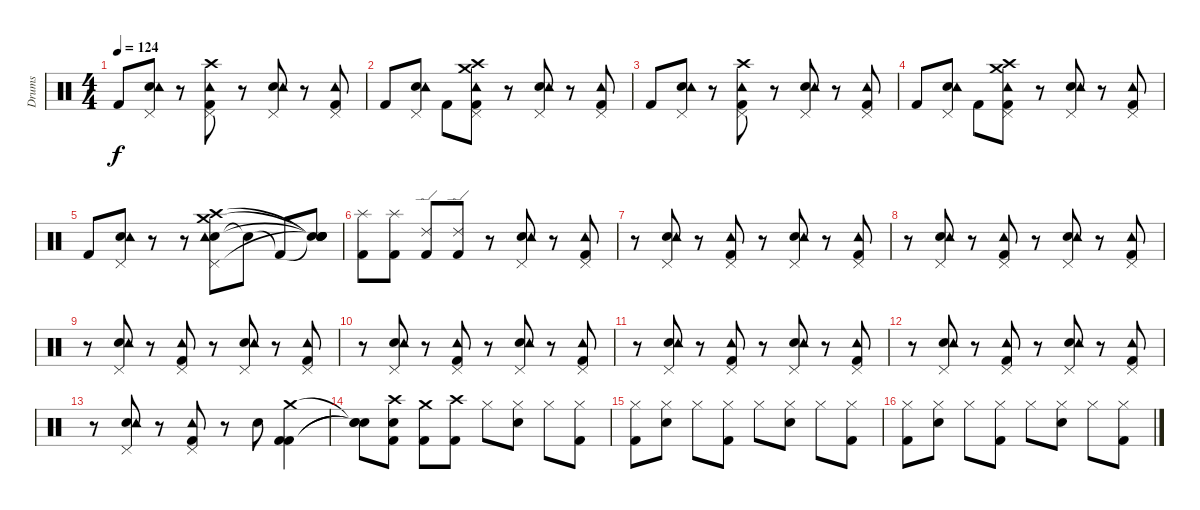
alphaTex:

\track ("Drums" "Drums") {instrument percussion}
\staff {score}
\articulation defaults
\ts (4 4)
\tempo 124
\clef neutral
\ks c "Kick (hit) 2".8{dy f}
("Snare (hit) 2" "Tambourine (hit)" "Pedal Hi-Hat (hit)").8 r.8 ("Kick (hit) 2" "Tambourine (hit)" "Pedal Hi-Hat (hit)" "Crash high (hit)").8 r.8 ("Snare (hit) 2" "Tambourine (hit)" "Pedal Hi-Hat (hit)").8 r.8 ("Kick (hit) 2" "Tambourine (hit)" "Pedal Hi-Hat (hit)").8 |
"Kick (hit) 2".8 ("Snare (hit) 2" "Tambourine (hit)" "Pedal Hi-Hat (hit)").8 "Kick (hit) 2".8 ("Kick (hit) 2" "Tambourine (hit)" "Pedal Hi-Hat (hit)" "Crash high (hit)" "Crash medium (hit)").8 r.8 ("Snare (hit) 2" "Tambourine (hit)" "Pedal Hi-Hat (hit)").8 r.8 ("Kick (hit) 2" "Tambourine (hit)" "Pedal Hi-Hat (hit)").8 |
"Kick (hit) 2".8 ("Snare (hit) 2" "Tambourine (hit)" "Pedal Hi-Hat (hit)").8 r.8 ("Kick (hit) 2" "Tambourine (hit)" "Pedal Hi-Hat (hit)" "Crash high (hit)").8 r.8 ("Snare (hit) 2" "Tambourine (hit)" "Pedal Hi-Hat (hit)").8 r.8 ("Kick (hit) 2" "Tambourine (hit)" "Pedal Hi-Hat (hit)").8 |
"Kick (hit) 2".8 ("Snare (hit) 2" "Tambourine (hit)" "Pedal Hi-Hat (hit)").8 "Kick (hit) 2".8 ("Kick (hit) 2" "Tambourine (hit)" "Pedal Hi-Hat (hit)" "Crash high (hit)" "Crash medium (hit)").8 r.8 ("Snare (hit) 2" "Tambourine (hit)" "Pedal Hi-Hat (hit)").8 r.8 ("Kick (hit) 2" "Tambourine (hit)" "Pedal Hi-Hat (hit)").8 |
"Kick (hit) 2".8 ("Snare (hit) 2" "Tambourine (hit)" "Pedal Hi-Hat (hit)").8 r.8 r.8 ("Snare (hit) 2" "Tambourine (hit)" "Pedal Hi-Hat (hit)" "Crash medium (hit)" "Crash high (hit)").8 "Snare (hit)"{t}.8 "Kick (hit) 2"{t}.8 ("Snare (hit)"{t} "Snare (hit)"{t} "Snare (hit)"{t} "Snare (hit)"{t} "Snare (hit)"{t}).8 |
("Splash (hit)" "Kick (hit) 2").8 ("Splash (hit)" "Kick (hit) 2").8 ("Ride (edge) 2" "Kick (hit) 2").8 ("Ride (edge) 2" "Kick (hit) 2").8 r.8 ("Snare (hit) 2" "Tambourine (hit)" "Pedal Hi-Hat (hit)").8 r.8 ("Kick (hit) 2" "Tambourine (hit)" "Pedal Hi-Hat (hit)").8 |
r.8 ("Snare (hit) 2" "Tambourine (hit)" "Pedal Hi-Hat (hit)").8 r.8 ("Kick (hit) 2" "Tambourine (hit)" "Pedal Hi-Hat (hit)").8 r.8 ("Snare (hit) 2" "Tambourine (hit)" "Pedal Hi-Hat (hit)").8 r.8 ("Kick (hit) 2" "Tambourine (hit)" "Pedal Hi-Hat (hit)").8 |
r.8 ("Snare (hit) 2" "Tambourine (hit)" "Pedal Hi-Hat (hit)").8 r.8 ("Kick (hit) 2" "Tambourine (hit)" "Pedal Hi-Hat (hit)").8 r.8 ("Snare (hit) 2" "Tambourine (hit)" "Pedal Hi-Hat (hit)").8 r.8 ("Kick (hit) 2" "Tambourine (hit)" "Pedal Hi-Hat (hit)").8 |
r.8 ("Snare (hit) 2" "Tambourine (hit)" "Pedal Hi-Hat (hit)").8 r.8 ("Kick (hit) 2" "Tambourine (hit)" "Pedal Hi-Hat (hit)").8 r.8 ("Snare (hit) 2" "Tambourine (hit)" "Pedal Hi-Hat (hit)").8 r.8 ("Kick (hit) 2" "Tambourine (hit)" "Pedal Hi-Hat (hit)").8 |
r.8 ("Snare (hit) 2" "Tambourine (hit)" "Pedal Hi-Hat (hit)").8 r.8 ("Kick (hit) 2" "Tambourine (hit)" "Pedal Hi-Hat (hit)").8 r.8 ("Snare (hit) 2" "Tambourine (hit)" "Pedal Hi-Hat (hit)").8 r.8 ("Kick (hit) 2" "Tambourine (hit)" "Pedal Hi-Hat (hit)").8 |
r.8 ("Snare (hit) 2" "Tambourine (hit)" "Pedal Hi-Hat (hit)").8 r.8 ("Kick (hit) 2" "Tambourine (hit)" "Pedal Hi-Hat (hit)").8 r.8 ("Snare (hit) 2" "Tambourine (hit)" "Pedal Hi-Hat (hit)").8 r.8 ("Kick (hit) 2" "Tambourine (hit)" "Pedal Hi-Hat (hit)").8 |
r.8 ("Snare (hit) 2" "Tambourine (hit)" "Pedal Hi-Hat (hit)").8 r.8 ("Kick (hit) 2" "Tambourine (hit)" "Pedal Hi-Hat (hit)").8 r.8 ("Snare (hit) 2" "Tambourine (hit)" "Pedal Hi-Hat (hit)").8 r.8 ("Kick (hit) 2" "Tambourine (hit)" "Pedal Hi-Hat (hit)").8 |
r.8 ("Snare (hit) 2" "Tambourine (hit)" "Pedal Hi-Hat (hit)").8 r.8 ("Kick (hit) 2" "Tambourine (hit)" "Pedal Hi-Hat (hit)").8 r.8 "Snare (hit) 2".8 ("Kick (hit) 2" "Crash medium (hit)" "Kick (hit) 2").4 |
("Snare (hit)"{t} "Snare (hit)"{t} "Snare (hit)"{t}).8 ("Kick (hit) 2" "Crash high (hit)" "Snare (hit) 2").8 ("Kick (hit) 2" "Crash medium (hit)").8 ("Kick (hit) 2" "Crash high (hit)").8 "Hi-Hat (closed)".8 ("Snare (hit) 2" "Hi-Hat (closed)").8 "Hi-Hat (closed)".8 ("Kick (hit) 2" "Hi-Hat (closed)").8 |
("Kick (hit) 2" "Hi-Hat (closed)").8 ("Snare (hit) 2" "Hi-Hat (closed)").8 "Hi-Hat (closed)".8 ("Kick (hit) 2" "Hi-Hat (closed)").8 "Hi-Hat (closed)".8 ("Snare (hit) 2" "Hi-Hat (closed)").8 "Hi-Hat (closed)".8 ("Kick (hit) 2" "Hi-Hat (closed)").8 |
("Kick (hit) 2" "Hi-Hat (closed)").8 ("Snare (hit) 2" "Hi-Hat (closed)").8 "Hi-Hat (closed)".8 ("Kick (hit) 2" "Hi-Hat (closed)").8 "Hi-Hat (closed)".8 ("Snare (hit) 2" "Hi-Hat (closed)").8 "Hi-Hat (closed)".8 ("Kick (hit) 2" "Hi-Hat (closed)").8
